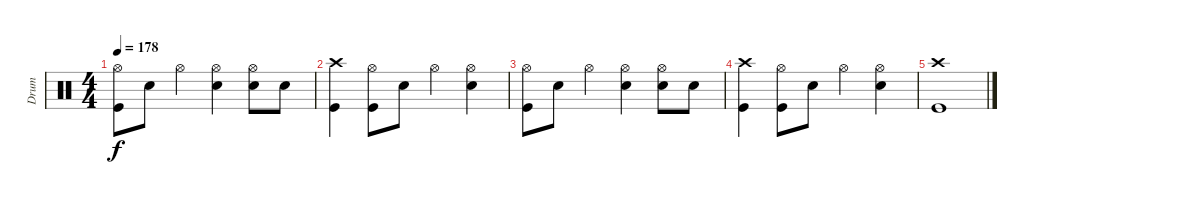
\track ("Drum" "Drum") {instrument percussion}
\staff {score}
\articulation defaults
\ts (4 4)
\tempo 178
\clef neutral
\ks c
("Hi-Hat (open)" "Kick (hit)").8{dy f} "Snare (hit) 2".8 "Hi-Hat (open)".4 ("Hi-Hat (open)" "Snare (hit) 2").4 ("Hi-Hat (open)" "Snare (hit) 2").8 "Snare (hit) 2".8 |
("Crash high (hit)" "Kick (hit)").4 ("Hi-Hat (open)" "Kick (hit)").8 "Snare (hit) 2".8 "Hi-Hat (open)".4 ("Hi-Hat (open)" "Snare (hit) 2").4 |
("Hi-Hat (open)" "Kick (hit)").8 "Snare (hit) 2".8 "Hi-Hat (open)".4 ("Hi-Hat (open)" "Snare (hit) 2").4 ("Hi-Hat (open)" "Snare (hit) 2").8 "Snare (hit) 2".8 |
("Crash high (hit)" "Kick (hit)").4 ("Hi-Hat (open)" "Kick (hit)").8 "Snare (hit) 2".8 "Hi-Hat (open)".4 ("Hi-Hat (open)" "Snare (hit) 2").4 |
("Crash high (hit)" "Kick (hit)").1
